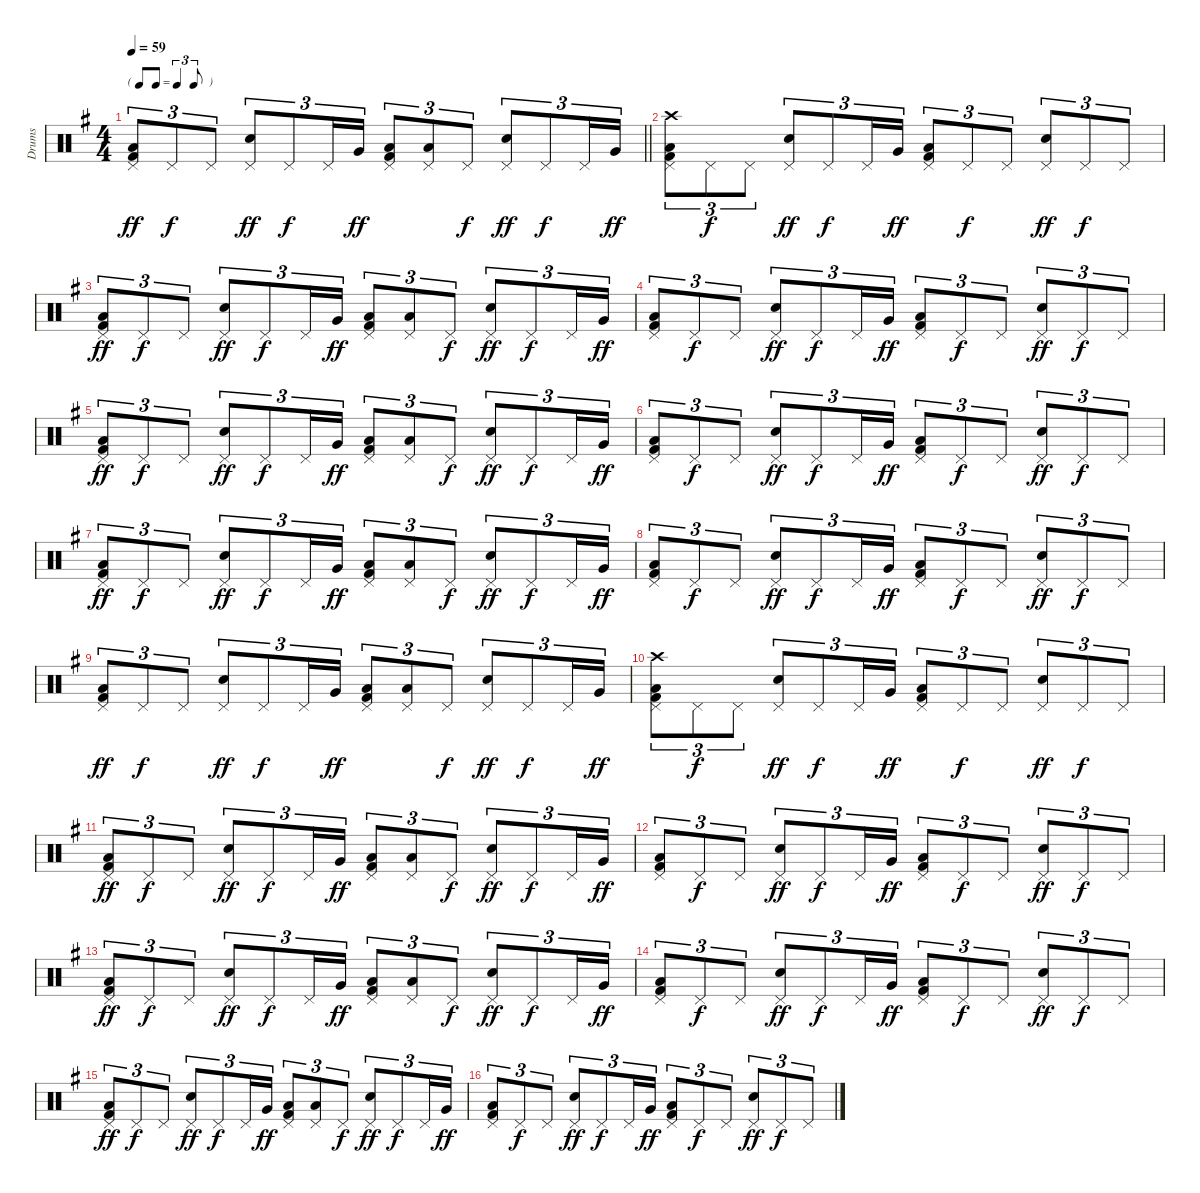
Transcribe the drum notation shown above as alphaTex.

\track ("Drums" "Drums") {instrument percussion}
\staff {score}
\articulation defaults
\ts (4 4)
\tf triplet8th
\tempo 59
\clef neutral
\barLineRight lightlight
\ks g
("Pedal Hi-Hat (hit)" "Low Floor Tom (hit)" "Kick (hit) 2").8{tu (3 2) dy ff} "Pedal Hi-Hat (hit)".8{tu (3 2) dy f} "Pedal Hi-Hat (hit)".8{tu (3 2)} ("Pedal Hi-Hat (hit)" "Electric Snare (hit)").8{tu (3 2) dy ff} "Pedal Hi-Hat (hit)".8{tu (3 2) dy f} "Pedal Hi-Hat (hit)".16{tu (3 2)} "Very Low Tom (hit)".16{tu (3 2) dy ff} ("Pedal Hi-Hat (hit)" "Low Floor Tom (hit)" "Kick (hit) 2").8{tu (3 2)} ("Pedal Hi-Hat (hit)" "Low Floor Tom (hit)").8{tu (3 2)} "Pedal Hi-Hat (hit)".8{tu (3 2) dy f} ("Pedal Hi-Hat (hit)" "Electric Snare (hit)").8{tu (3 2) dy ff} "Pedal Hi-Hat (hit)".8{tu (3 2) dy f} "Pedal Hi-Hat (hit)".16{tu (3 2)} "Very Low Tom (hit)".16{tu (3 2) dy ff} |
("Pedal Hi-Hat (hit)" "Crash high (hit)" "Low Floor Tom (hit)" "Kick (hit) 2").8{tu (3 2)} "Pedal Hi-Hat (hit)".8{tu (3 2) dy f} "Pedal Hi-Hat (hit)".8{tu (3 2)} ("Pedal Hi-Hat (hit)" "Electric Snare (hit)").8{tu (3 2) dy ff} "Pedal Hi-Hat (hit)".8{tu (3 2) dy f} "Pedal Hi-Hat (hit)".16{tu (3 2)} "Very Low Tom (hit)".16{tu (3 2) dy ff} ("Pedal Hi-Hat (hit)" "Low Floor Tom (hit)" "Kick (hit) 2").8{tu (3 2)} "Pedal Hi-Hat (hit)".8{tu (3 2) dy f} "Pedal Hi-Hat (hit)".8{tu (3 2)} ("Pedal Hi-Hat (hit)" "Electric Snare (hit)").8{tu (3 2) dy ff} "Pedal Hi-Hat (hit)".8{tu (3 2) dy f} "Pedal Hi-Hat (hit)".8{tu (3 2)} |
("Pedal Hi-Hat (hit)" "Low Floor Tom (hit)" "Kick (hit) 2").8{tu (3 2) dy ff} "Pedal Hi-Hat (hit)".8{tu (3 2) dy f} "Pedal Hi-Hat (hit)".8{tu (3 2)} ("Pedal Hi-Hat (hit)" "Electric Snare (hit)").8{tu (3 2) dy ff} "Pedal Hi-Hat (hit)".8{tu (3 2) dy f} "Pedal Hi-Hat (hit)".16{tu (3 2)} "Very Low Tom (hit)".16{tu (3 2) dy ff} ("Pedal Hi-Hat (hit)" "Low Floor Tom (hit)" "Kick (hit) 2").8{tu (3 2)} ("Pedal Hi-Hat (hit)" "Low Floor Tom (hit)").8{tu (3 2)} "Pedal Hi-Hat (hit)".8{tu (3 2) dy f} ("Pedal Hi-Hat (hit)" "Electric Snare (hit)").8{tu (3 2) dy ff} "Pedal Hi-Hat (hit)".8{tu (3 2) dy f} "Pedal Hi-Hat (hit)".16{tu (3 2)} "Very Low Tom (hit)".16{tu (3 2) dy ff} |
("Pedal Hi-Hat (hit)" "Low Floor Tom (hit)" "Kick (hit) 2").8{tu (3 2)} "Pedal Hi-Hat (hit)".8{tu (3 2) dy f} "Pedal Hi-Hat (hit)".8{tu (3 2)} ("Pedal Hi-Hat (hit)" "Electric Snare (hit)").8{tu (3 2) dy ff} "Pedal Hi-Hat (hit)".8{tu (3 2) dy f} "Pedal Hi-Hat (hit)".16{tu (3 2)} "Very Low Tom (hit)".16{tu (3 2) dy ff} ("Pedal Hi-Hat (hit)" "Low Floor Tom (hit)" "Kick (hit) 2").8{tu (3 2)} "Pedal Hi-Hat (hit)".8{tu (3 2) dy f} "Pedal Hi-Hat (hit)".8{tu (3 2)} ("Pedal Hi-Hat (hit)" "Electric Snare (hit)").8{tu (3 2) dy ff} "Pedal Hi-Hat (hit)".8{tu (3 2) dy f} "Pedal Hi-Hat (hit)".8{tu (3 2)} |
("Pedal Hi-Hat (hit)" "Low Floor Tom (hit)" "Kick (hit) 2").8{tu (3 2) dy ff} "Pedal Hi-Hat (hit)".8{tu (3 2) dy f} "Pedal Hi-Hat (hit)".8{tu (3 2)} ("Pedal Hi-Hat (hit)" "Electric Snare (hit)").8{tu (3 2) dy ff} "Pedal Hi-Hat (hit)".8{tu (3 2) dy f} "Pedal Hi-Hat (hit)".16{tu (3 2)} "Very Low Tom (hit)".16{tu (3 2) dy ff} ("Pedal Hi-Hat (hit)" "Low Floor Tom (hit)" "Kick (hit) 2").8{tu (3 2)} ("Pedal Hi-Hat (hit)" "Low Floor Tom (hit)").8{tu (3 2)} "Pedal Hi-Hat (hit)".8{tu (3 2) dy f} ("Pedal Hi-Hat (hit)" "Electric Snare (hit)").8{tu (3 2) dy ff} "Pedal Hi-Hat (hit)".8{tu (3 2) dy f} "Pedal Hi-Hat (hit)".16{tu (3 2)} "Very Low Tom (hit)".16{tu (3 2) dy ff} |
("Pedal Hi-Hat (hit)" "Low Floor Tom (hit)" "Kick (hit) 2").8{tu (3 2)} "Pedal Hi-Hat (hit)".8{tu (3 2) dy f} "Pedal Hi-Hat (hit)".8{tu (3 2)} ("Pedal Hi-Hat (hit)" "Electric Snare (hit)").8{tu (3 2) dy ff} "Pedal Hi-Hat (hit)".8{tu (3 2) dy f} "Pedal Hi-Hat (hit)".16{tu (3 2)} "Very Low Tom (hit)".16{tu (3 2) dy ff} ("Pedal Hi-Hat (hit)" "Low Floor Tom (hit)" "Kick (hit) 2").8{tu (3 2)} "Pedal Hi-Hat (hit)".8{tu (3 2) dy f} "Pedal Hi-Hat (hit)".8{tu (3 2)} ("Pedal Hi-Hat (hit)" "Electric Snare (hit)").8{tu (3 2) dy ff} "Pedal Hi-Hat (hit)".8{tu (3 2) dy f} "Pedal Hi-Hat (hit)".8{tu (3 2)} |
("Pedal Hi-Hat (hit)" "Low Floor Tom (hit)" "Kick (hit) 2").8{tu (3 2) dy ff} "Pedal Hi-Hat (hit)".8{tu (3 2) dy f} "Pedal Hi-Hat (hit)".8{tu (3 2)} ("Pedal Hi-Hat (hit)" "Electric Snare (hit)").8{tu (3 2) dy ff} "Pedal Hi-Hat (hit)".8{tu (3 2) dy f} "Pedal Hi-Hat (hit)".16{tu (3 2)} "Very Low Tom (hit)".16{tu (3 2) dy ff} ("Pedal Hi-Hat (hit)" "Low Floor Tom (hit)" "Kick (hit) 2").8{tu (3 2)} ("Pedal Hi-Hat (hit)" "Low Floor Tom (hit)").8{tu (3 2)} "Pedal Hi-Hat (hit)".8{tu (3 2) dy f} ("Pedal Hi-Hat (hit)" "Electric Snare (hit)").8{tu (3 2) dy ff} "Pedal Hi-Hat (hit)".8{tu (3 2) dy f} "Pedal Hi-Hat (hit)".16{tu (3 2)} "Very Low Tom (hit)".16{tu (3 2) dy ff} |
("Pedal Hi-Hat (hit)" "Low Floor Tom (hit)" "Kick (hit) 2").8{tu (3 2)} "Pedal Hi-Hat (hit)".8{tu (3 2) dy f} "Pedal Hi-Hat (hit)".8{tu (3 2)} ("Pedal Hi-Hat (hit)" "Electric Snare (hit)").8{tu (3 2) dy ff} "Pedal Hi-Hat (hit)".8{tu (3 2) dy f} "Pedal Hi-Hat (hit)".16{tu (3 2)} "Very Low Tom (hit)".16{tu (3 2) dy ff} ("Pedal Hi-Hat (hit)" "Low Floor Tom (hit)" "Kick (hit) 2").8{tu (3 2)} "Pedal Hi-Hat (hit)".8{tu (3 2) dy f} "Pedal Hi-Hat (hit)".8{tu (3 2)} ("Pedal Hi-Hat (hit)" "Electric Snare (hit)").8{tu (3 2) dy ff} "Pedal Hi-Hat (hit)".8{tu (3 2) dy f} "Pedal Hi-Hat (hit)".8{tu (3 2)} |
("Pedal Hi-Hat (hit)" "Low Floor Tom (hit)" "Kick (hit) 2").8{tu (3 2) dy ff} "Pedal Hi-Hat (hit)".8{tu (3 2) dy f} "Pedal Hi-Hat (hit)".8{tu (3 2)} ("Pedal Hi-Hat (hit)" "Electric Snare (hit)").8{tu (3 2) dy ff} "Pedal Hi-Hat (hit)".8{tu (3 2) dy f} "Pedal Hi-Hat (hit)".16{tu (3 2)} "Very Low Tom (hit)".16{tu (3 2) dy ff} ("Pedal Hi-Hat (hit)" "Low Floor Tom (hit)" "Kick (hit) 2").8{tu (3 2)} ("Pedal Hi-Hat (hit)" "Low Floor Tom (hit)").8{tu (3 2)} "Pedal Hi-Hat (hit)".8{tu (3 2) dy f} ("Pedal Hi-Hat (hit)" "Electric Snare (hit)").8{tu (3 2) dy ff} "Pedal Hi-Hat (hit)".8{tu (3 2) dy f} "Pedal Hi-Hat (hit)".16{tu (3 2)} "Very Low Tom (hit)".16{tu (3 2) dy ff} |
("Pedal Hi-Hat (hit)" "Crash high (hit)" "Low Floor Tom (hit)" "Kick (hit) 2").8{tu (3 2)} "Pedal Hi-Hat (hit)".8{tu (3 2) dy f} "Pedal Hi-Hat (hit)".8{tu (3 2)} ("Pedal Hi-Hat (hit)" "Electric Snare (hit)").8{tu (3 2) dy ff} "Pedal Hi-Hat (hit)".8{tu (3 2) dy f} "Pedal Hi-Hat (hit)".16{tu (3 2)} "Very Low Tom (hit)".16{tu (3 2) dy ff} ("Pedal Hi-Hat (hit)" "Low Floor Tom (hit)" "Kick (hit) 2").8{tu (3 2)} "Pedal Hi-Hat (hit)".8{tu (3 2) dy f} "Pedal Hi-Hat (hit)".8{tu (3 2)} ("Pedal Hi-Hat (hit)" "Electric Snare (hit)").8{tu (3 2) dy ff} "Pedal Hi-Hat (hit)".8{tu (3 2) dy f} "Pedal Hi-Hat (hit)".8{tu (3 2)} |
("Pedal Hi-Hat (hit)" "Low Floor Tom (hit)" "Kick (hit) 2").8{tu (3 2) dy ff} "Pedal Hi-Hat (hit)".8{tu (3 2) dy f} "Pedal Hi-Hat (hit)".8{tu (3 2)} ("Pedal Hi-Hat (hit)" "Electric Snare (hit)").8{tu (3 2) dy ff} "Pedal Hi-Hat (hit)".8{tu (3 2) dy f} "Pedal Hi-Hat (hit)".16{tu (3 2)} "Very Low Tom (hit)".16{tu (3 2) dy ff} ("Pedal Hi-Hat (hit)" "Low Floor Tom (hit)" "Kick (hit) 2").8{tu (3 2)} ("Pedal Hi-Hat (hit)" "Low Floor Tom (hit)").8{tu (3 2)} "Pedal Hi-Hat (hit)".8{tu (3 2) dy f} ("Pedal Hi-Hat (hit)" "Electric Snare (hit)").8{tu (3 2) dy ff} "Pedal Hi-Hat (hit)".8{tu (3 2) dy f} "Pedal Hi-Hat (hit)".16{tu (3 2)} "Very Low Tom (hit)".16{tu (3 2) dy ff} |
("Pedal Hi-Hat (hit)" "Low Floor Tom (hit)" "Kick (hit) 2").8{tu (3 2)} "Pedal Hi-Hat (hit)".8{tu (3 2) dy f} "Pedal Hi-Hat (hit)".8{tu (3 2)} ("Pedal Hi-Hat (hit)" "Electric Snare (hit)").8{tu (3 2) dy ff} "Pedal Hi-Hat (hit)".8{tu (3 2) dy f} "Pedal Hi-Hat (hit)".16{tu (3 2)} "Very Low Tom (hit)".16{tu (3 2) dy ff} ("Pedal Hi-Hat (hit)" "Low Floor Tom (hit)" "Kick (hit) 2").8{tu (3 2)} "Pedal Hi-Hat (hit)".8{tu (3 2) dy f} "Pedal Hi-Hat (hit)".8{tu (3 2)} ("Pedal Hi-Hat (hit)" "Electric Snare (hit)").8{tu (3 2) dy ff} "Pedal Hi-Hat (hit)".8{tu (3 2) dy f} "Pedal Hi-Hat (hit)".8{tu (3 2)} |
("Pedal Hi-Hat (hit)" "Low Floor Tom (hit)" "Kick (hit) 2").8{tu (3 2) dy ff} "Pedal Hi-Hat (hit)".8{tu (3 2) dy f} "Pedal Hi-Hat (hit)".8{tu (3 2)} ("Pedal Hi-Hat (hit)" "Electric Snare (hit)").8{tu (3 2) dy ff} "Pedal Hi-Hat (hit)".8{tu (3 2) dy f} "Pedal Hi-Hat (hit)".16{tu (3 2)} "Very Low Tom (hit)".16{tu (3 2) dy ff} ("Pedal Hi-Hat (hit)" "Low Floor Tom (hit)" "Kick (hit) 2").8{tu (3 2)} ("Pedal Hi-Hat (hit)" "Low Floor Tom (hit)").8{tu (3 2)} "Pedal Hi-Hat (hit)".8{tu (3 2) dy f} ("Pedal Hi-Hat (hit)" "Electric Snare (hit)").8{tu (3 2) dy ff} "Pedal Hi-Hat (hit)".8{tu (3 2) dy f} "Pedal Hi-Hat (hit)".16{tu (3 2)} "Very Low Tom (hit)".16{tu (3 2) dy ff} |
("Pedal Hi-Hat (hit)" "Low Floor Tom (hit)" "Kick (hit) 2").8{tu (3 2)} "Pedal Hi-Hat (hit)".8{tu (3 2) dy f} "Pedal Hi-Hat (hit)".8{tu (3 2)} ("Pedal Hi-Hat (hit)" "Electric Snare (hit)").8{tu (3 2) dy ff} "Pedal Hi-Hat (hit)".8{tu (3 2) dy f} "Pedal Hi-Hat (hit)".16{tu (3 2)} "Very Low Tom (hit)".16{tu (3 2) dy ff} ("Pedal Hi-Hat (hit)" "Low Floor Tom (hit)" "Kick (hit) 2").8{tu (3 2)} "Pedal Hi-Hat (hit)".8{tu (3 2) dy f} "Pedal Hi-Hat (hit)".8{tu (3 2)} ("Pedal Hi-Hat (hit)" "Electric Snare (hit)").8{tu (3 2) dy ff} "Pedal Hi-Hat (hit)".8{tu (3 2) dy f} "Pedal Hi-Hat (hit)".8{tu (3 2)} |
("Pedal Hi-Hat (hit)" "Low Floor Tom (hit)" "Kick (hit) 2").8{tu (3 2) dy ff} "Pedal Hi-Hat (hit)".8{tu (3 2) dy f} "Pedal Hi-Hat (hit)".8{tu (3 2)} ("Pedal Hi-Hat (hit)" "Electric Snare (hit)").8{tu (3 2) dy ff} "Pedal Hi-Hat (hit)".8{tu (3 2) dy f} "Pedal Hi-Hat (hit)".16{tu (3 2)} "Very Low Tom (hit)".16{tu (3 2) dy ff} ("Pedal Hi-Hat (hit)" "Low Floor Tom (hit)" "Kick (hit) 2").8{tu (3 2)} ("Pedal Hi-Hat (hit)" "Low Floor Tom (hit)").8{tu (3 2)} "Pedal Hi-Hat (hit)".8{tu (3 2) dy f} ("Pedal Hi-Hat (hit)" "Electric Snare (hit)").8{tu (3 2) dy ff} "Pedal Hi-Hat (hit)".8{tu (3 2) dy f} "Pedal Hi-Hat (hit)".16{tu (3 2)} "Very Low Tom (hit)".16{tu (3 2) dy ff} |
("Pedal Hi-Hat (hit)" "Low Floor Tom (hit)" "Kick (hit) 2").8{tu (3 2)} "Pedal Hi-Hat (hit)".8{tu (3 2) dy f} "Pedal Hi-Hat (hit)".8{tu (3 2)} ("Pedal Hi-Hat (hit)" "Electric Snare (hit)").8{tu (3 2) dy ff} "Pedal Hi-Hat (hit)".8{tu (3 2) dy f} "Pedal Hi-Hat (hit)".16{tu (3 2)} "Very Low Tom (hit)".16{tu (3 2) dy ff} ("Pedal Hi-Hat (hit)" "Low Floor Tom (hit)" "Kick (hit) 2").8{tu (3 2)} "Pedal Hi-Hat (hit)".8{tu (3 2) dy f} "Pedal Hi-Hat (hit)".8{tu (3 2)} ("Pedal Hi-Hat (hit)" "Electric Snare (hit)").8{tu (3 2) dy ff} "Pedal Hi-Hat (hit)".8{tu (3 2) dy f} "Pedal Hi-Hat (hit)".8{tu (3 2)}
